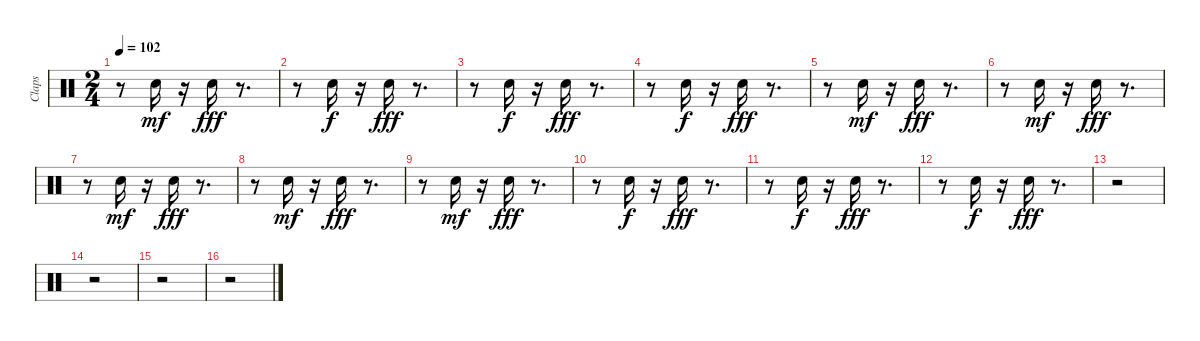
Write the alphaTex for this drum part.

\track ("Claps" "Claps") {instrument percussion}
\staff {score}
\articulation defaults
\ts (2 4)
\tempo 102
\clef neutral
\ks c
r.8{dy fff} "Hand Clap (hit)".16{dy mf} r.16 "Hand Clap (hit)".16{dy fff} r.8{d} |
r.8 "Hand Clap (hit)".16{dy f} r.16 "Hand Clap (hit)".16{dy fff} r.8{d} |
r.8 "Hand Clap (hit)".16{dy f} r.16 "Hand Clap (hit)".16{dy fff} r.8{d} |
r.8 "Hand Clap (hit)".16{dy f} r.16 "Hand Clap (hit)".16{dy fff} r.8{d} |
r.8 "Hand Clap (hit)".16{dy mf} r.16 "Hand Clap (hit)".16{dy fff} r.8{d} |
r.8 "Hand Clap (hit)".16{dy mf} r.16 "Hand Clap (hit)".16{dy fff} r.8{d} |
r.8 "Hand Clap (hit)".16{dy mf} r.16 "Hand Clap (hit)".16{dy fff} r.8{d} |
r.8 "Hand Clap (hit)".16{dy mf} r.16 "Hand Clap (hit)".16{dy fff} r.8{d} |
r.8 "Hand Clap (hit)".16{dy mf} r.16 "Hand Clap (hit)".16{dy fff} r.8{d} |
r.8 "Hand Clap (hit)".16{dy f} r.16 "Hand Clap (hit)".16{dy fff} r.8{d} |
r.8 "Hand Clap (hit)".16{dy f} r.16 "Hand Clap (hit)".16{dy fff} r.8{d} |
r.8 "Hand Clap (hit)".16{dy f} r.16 "Hand Clap (hit)".16{dy fff} r.8{d} |
r.2 |
r.2 |
r.2 |
r.2
